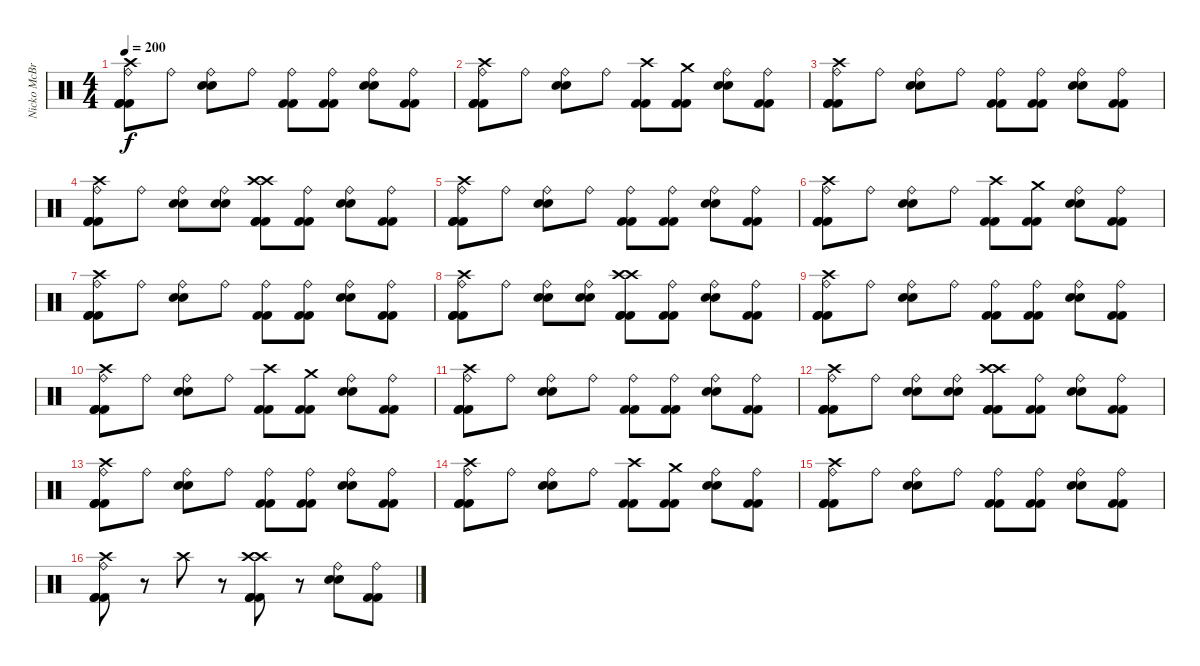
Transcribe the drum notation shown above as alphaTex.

\track ("Nicko McBrain" "Nicko McBr") {instrument percussion}
\staff {score}
\articulation defaults
\ts (4 4)
\tempo 200
\clef neutral
\ks c
("Crash high (hit)" "Ride (bell)" "Kick (hit) 2" "Kick (hit) 2" "Kick (hit) 2").8{dy f} "Ride (bell)".8 ("Ride (bell)" "Snare (hit) 2" "Snare (hit) 2").8 "Ride (bell)".8 ("Ride (bell)" "Kick (hit) 2" "Kick (hit) 2").8 ("Ride (bell)" "Kick (hit) 2" "Kick (hit) 2").8 ("Ride (bell)" "Snare (hit) 2" "Snare (hit) 2").8 ("Ride (bell)" "Kick (hit) 2" "Kick (hit) 2").8 |
("Crash high (hit)" "Ride (bell)" "Kick (hit) 2" "Kick (hit) 2" "Kick (hit) 2").8 "Ride (bell)".8 ("Ride (bell)" "Snare (hit) 2" "Snare (hit) 2").8 "Ride (bell)".8 ("Crash high (hit)" "Kick (hit) 2" "Kick (hit) 2").8 ("Crash medium (hit)" "Kick (hit) 2" "Kick (hit) 2").8 ("Ride (bell)" "Snare (hit) 2" "Snare (hit) 2").8 ("Ride (bell)" "Kick (hit) 2" "Kick (hit) 2").8 |
("Crash high (hit)" "Ride (bell)" "Kick (hit) 2" "Kick (hit) 2" "Kick (hit) 2").8 "Ride (bell)".8 ("Ride (bell)" "Snare (hit) 2" "Snare (hit) 2").8 "Ride (bell)".8 ("Ride (bell)" "Kick (hit) 2" "Kick (hit) 2").8 ("Ride (bell)" "Kick (hit) 2" "Kick (hit) 2").8 ("Ride (bell)" "Snare (hit) 2" "Snare (hit) 2").8 ("Ride (bell)" "Kick (hit) 2" "Kick (hit) 2").8 |
("Crash high (hit)" "Ride (bell)" "Kick (hit) 2" "Kick (hit) 2" "Kick (hit) 2").8 "Ride (bell)".8 ("Ride (bell)" "Snare (hit) 2" "Snare (hit) 2").8 ("Ride (bell)" "Snare (hit) 2" "Snare (hit) 2").8 ("Crash high (hit)" "Crash high (hit)" "Kick (hit) 2" "Kick (hit) 2" "Kick (hit) 2").8 ("Ride (bell)" "Kick (hit) 2" "Kick (hit) 2").8 ("Ride (bell)" "Snare (hit) 2" "Snare (hit) 2").8 ("Ride (bell)" "Kick (hit) 2" "Kick (hit) 2").8 |
("Crash high (hit)" "Ride (bell)" "Kick (hit) 2" "Kick (hit) 2" "Kick (hit) 2").8 "Ride (bell)".8 ("Ride (bell)" "Snare (hit) 2" "Snare (hit) 2").8 "Ride (bell)".8 ("Ride (bell)" "Kick (hit) 2" "Kick (hit) 2").8 ("Ride (bell)" "Kick (hit) 2" "Kick (hit) 2").8 ("Ride (bell)" "Snare (hit) 2" "Snare (hit) 2").8 ("Ride (bell)" "Kick (hit) 2" "Kick (hit) 2").8 |
("Crash high (hit)" "Ride (bell)" "Kick (hit) 2" "Kick (hit) 2" "Kick (hit) 2").8 "Ride (bell)".8 ("Ride (bell)" "Snare (hit) 2" "Snare (hit) 2").8 "Ride (bell)".8 ("Crash high (hit)" "Kick (hit) 2" "Kick (hit) 2").8 ("Crash medium (hit)" "Kick (hit) 2" "Kick (hit) 2").8 ("Ride (bell)" "Snare (hit) 2" "Snare (hit) 2").8 ("Ride (bell)" "Kick (hit) 2" "Kick (hit) 2").8 |
("Crash high (hit)" "Ride (bell)" "Kick (hit) 2" "Kick (hit) 2" "Kick (hit) 2").8 "Ride (bell)".8 ("Ride (bell)" "Snare (hit) 2" "Snare (hit) 2").8 "Ride (bell)".8 ("Ride (bell)" "Kick (hit) 2" "Kick (hit) 2").8 ("Ride (bell)" "Kick (hit) 2" "Kick (hit) 2").8 ("Ride (bell)" "Snare (hit) 2" "Snare (hit) 2").8 ("Ride (bell)" "Kick (hit) 2" "Kick (hit) 2").8 |
("Crash high (hit)" "Ride (bell)" "Kick (hit) 2" "Kick (hit) 2" "Kick (hit) 2").8 "Ride (bell)".8 ("Ride (bell)" "Snare (hit) 2" "Snare (hit) 2").8 ("Ride (bell)" "Snare (hit) 2" "Snare (hit) 2").8 ("Crash high (hit)" "Crash high (hit)" "Kick (hit) 2" "Kick (hit) 2" "Kick (hit) 2").8 ("Ride (bell)" "Kick (hit) 2" "Kick (hit) 2").8 ("Ride (bell)" "Snare (hit) 2" "Snare (hit) 2").8 ("Ride (bell)" "Kick (hit) 2" "Kick (hit) 2").8 |
("Crash high (hit)" "Ride (bell)" "Kick (hit) 2" "Kick (hit) 2" "Kick (hit) 2").8 "Ride (bell)".8 ("Ride (bell)" "Snare (hit) 2" "Snare (hit) 2").8 "Ride (bell)".8 ("Ride (bell)" "Kick (hit) 2" "Kick (hit) 2").8 ("Ride (bell)" "Kick (hit) 2" "Kick (hit) 2").8 ("Ride (bell)" "Snare (hit) 2" "Snare (hit) 2").8 ("Ride (bell)" "Kick (hit) 2" "Kick (hit) 2").8 |
("Crash high (hit)" "Ride (bell)" "Kick (hit) 2" "Kick (hit) 2" "Kick (hit) 2").8 "Ride (bell)".8 ("Ride (bell)" "Snare (hit) 2" "Snare (hit) 2").8 "Ride (bell)".8 ("Crash high (hit)" "Kick (hit) 2" "Kick (hit) 2").8 ("Crash medium (hit)" "Kick (hit) 2" "Kick (hit) 2").8 ("Ride (bell)" "Snare (hit) 2" "Snare (hit) 2").8 ("Ride (bell)" "Kick (hit) 2" "Kick (hit) 2").8 |
("Crash high (hit)" "Ride (bell)" "Kick (hit) 2" "Kick (hit) 2" "Kick (hit) 2").8 "Ride (bell)".8 ("Ride (bell)" "Snare (hit) 2" "Snare (hit) 2").8 "Ride (bell)".8 ("Ride (bell)" "Kick (hit) 2" "Kick (hit) 2").8 ("Ride (bell)" "Kick (hit) 2" "Kick (hit) 2").8 ("Ride (bell)" "Snare (hit) 2" "Snare (hit) 2").8 ("Ride (bell)" "Kick (hit) 2" "Kick (hit) 2").8 |
("Crash high (hit)" "Ride (bell)" "Kick (hit) 2" "Kick (hit) 2" "Kick (hit) 2").8 "Ride (bell)".8 ("Ride (bell)" "Snare (hit) 2" "Snare (hit) 2").8 ("Ride (bell)" "Snare (hit) 2" "Snare (hit) 2").8 ("Crash high (hit)" "Crash high (hit)" "Kick (hit) 2" "Kick (hit) 2" "Kick (hit) 2").8 ("Ride (bell)" "Kick (hit) 2" "Kick (hit) 2").8 ("Ride (bell)" "Snare (hit) 2" "Snare (hit) 2").8 ("Ride (bell)" "Kick (hit) 2" "Kick (hit) 2").8 |
("Crash high (hit)" "Ride (bell)" "Kick (hit) 2" "Kick (hit) 2" "Kick (hit) 2").8 "Ride (bell)".8 ("Ride (bell)" "Snare (hit) 2" "Snare (hit) 2").8 "Ride (bell)".8 ("Ride (bell)" "Kick (hit) 2" "Kick (hit) 2").8 ("Ride (bell)" "Kick (hit) 2" "Kick (hit) 2").8 ("Ride (bell)" "Snare (hit) 2" "Snare (hit) 2").8 ("Ride (bell)" "Kick (hit) 2" "Kick (hit) 2").8 |
("Crash high (hit)" "Ride (bell)" "Kick (hit) 2" "Kick (hit) 2" "Kick (hit) 2").8 "Ride (bell)".8 ("Ride (bell)" "Snare (hit) 2" "Snare (hit) 2").8 "Ride (bell)".8 ("Crash high (hit)" "Kick (hit) 2" "Kick (hit) 2").8 ("Crash medium (hit)" "Kick (hit) 2" "Kick (hit) 2").8 ("Ride (bell)" "Snare (hit) 2" "Snare (hit) 2").8 ("Ride (bell)" "Kick (hit) 2" "Kick (hit) 2").8 |
("Crash high (hit)" "Ride (bell)" "Kick (hit) 2" "Kick (hit) 2" "Kick (hit) 2").8 "Ride (bell)".8 ("Ride (bell)" "Snare (hit) 2" "Snare (hit) 2").8 "Ride (bell)".8 ("Ride (bell)" "Kick (hit) 2" "Kick (hit) 2").8 ("Ride (bell)" "Kick (hit) 2" "Kick (hit) 2").8 ("Ride (bell)" "Snare (hit) 2" "Snare (hit) 2").8 ("Ride (bell)" "Kick (hit) 2" "Kick (hit) 2").8 |
("Crash high (hit)" "Ride (bell)" "Kick (hit) 2" "Kick (hit) 2" "Kick (hit) 2").8 r.8 "Crash high (hit)".8 r.8 ("Crash high (hit)" "Crash high (hit)" "Kick (hit) 2" "Kick (hit) 2" "Kick (hit) 2").8 r.8 ("Ride (bell)" "Snare (hit) 2" "Snare (hit) 2").8 ("Ride (bell)" "Kick (hit) 2" "Kick (hit) 2").8
